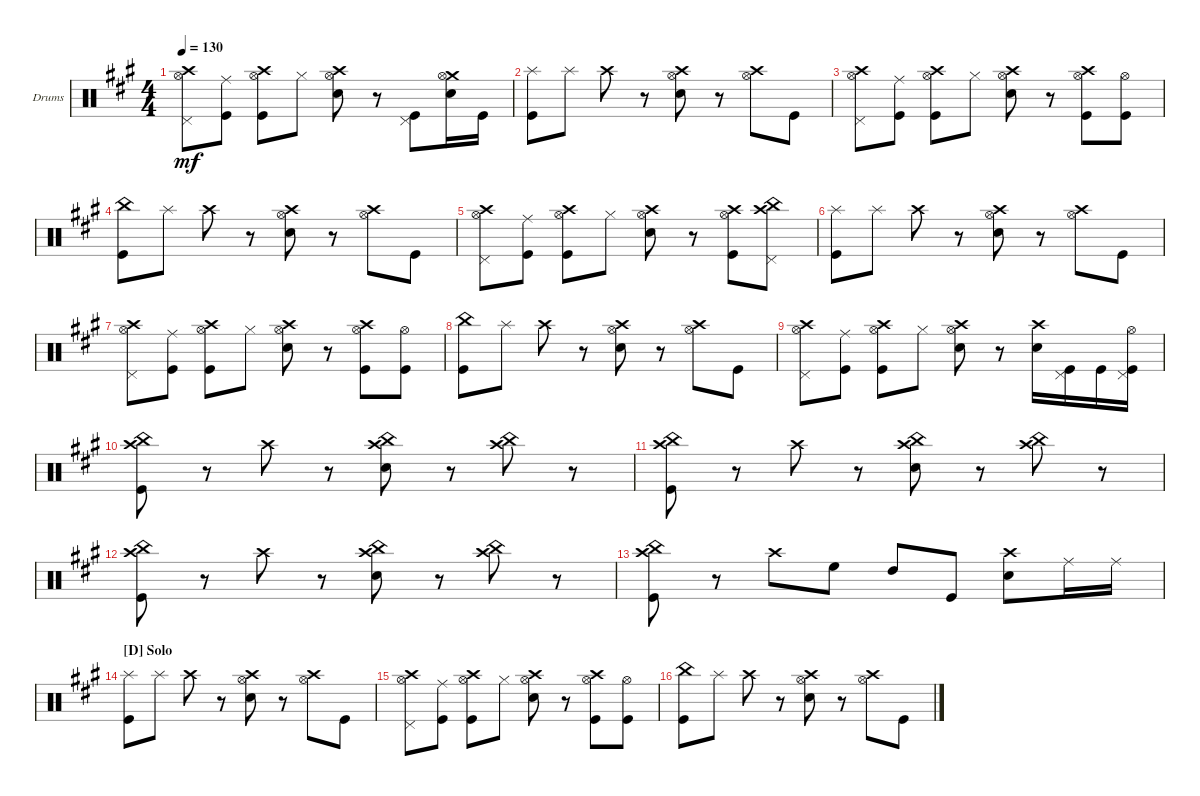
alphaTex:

\defaultSystemsLayout 4
\bracketExtendMode groupsimilarinstruments
\firstSystemTrackNameOrientation horizontal
\otherSystemsTrackNameOrientation horizontal
\track ("Bateria" "Drums") {instrument percussion}
\staff {score}
\articulation defaults
\ts (4 4)
\tempo 130
\clef neutral
\ks a
("Pedal Hi-Hat (hit)" "Hi-Hat (open)" "Crash high (hit)").8{dy mf} ("Kick (hit)" "Ride (middle)").8 ("Kick (hit)" "Hi-Hat (open)" "Crash high (hit)").8 "Hi-Hat (closed)".8 ("Snare (hit) 2" "Hi-Hat (open)" "Crash high (hit)").8 r.8 ("Kick (hit)" "Pedal Hi-Hat (hit)").8 ("Snare (hit) 2" "Crash medium (hit)" "Hi-Hat (open)").16 "Kick (hit)".16 |
("Kick (hit)" "Splash (hit)").8 "Splash (hit)".8 "Crash high (hit)".8 r.8 ("Snare (hit) 2" "Hi-Hat (open)" "Crash high (hit)").8 r.8 ("Hi-Hat (open)" "Crash high (hit)").8 "Kick (hit)".8 |
("Pedal Hi-Hat (hit)" "Hi-Hat (open)" "Crash high (hit)").8 ("Kick (hit)" "Ride (middle)").8 ("Kick (hit)" "Hi-Hat (open)" "Crash high (hit)").8 "Hi-Hat (closed)".8 ("Snare (hit) 2" "Hi-Hat (open)" "Crash high (hit)").8 r.8 ("Kick (hit)" "Hi-Hat (open)" "Crash high (hit)").8 ("Kick (hit)" "Hi-Hat (open)").8 |
("Kick (hit)" "China (hit)").8 "Splash (hit)".8 "Crash high (hit)".8 r.8 ("Snare (hit) 2" "Hi-Hat (open)" "Crash high (hit)").8 r.8 ("Hi-Hat (open)" "Crash high (hit)").8 "Kick (hit)".8 |
("Pedal Hi-Hat (hit)" "Hi-Hat (open)" "Crash high (hit)").8 ("Kick (hit)" "Ride (middle)").8 ("Kick (hit)" "Hi-Hat (open)" "Crash high (hit)").8 "Hi-Hat (closed)".8 ("Snare (hit) 2" "Hi-Hat (open)" "Crash high (hit)").8 r.8 ("Crash high (hit)" "Hi-Hat (open)" "Kick (hit)").8 ("Crash high (hit)" "China (hit)" "Pedal Hi-Hat (hit)").8 |
("Kick (hit)" "Splash (hit)").8 "Splash (hit)".8 "Crash high (hit)".8 r.8 ("Snare (hit) 2" "Hi-Hat (open)" "Crash high (hit)").8 r.8 ("Hi-Hat (open)" "Crash high (hit)").8 "Kick (hit)".8 |
("Pedal Hi-Hat (hit)" "Hi-Hat (open)" "Crash high (hit)").8 ("Kick (hit)" "Ride (middle)").8 ("Kick (hit)" "Hi-Hat (open)" "Crash high (hit)").8 "Hi-Hat (closed)".8 ("Snare (hit) 2" "Hi-Hat (open)" "Crash high (hit)").8 r.8 ("Kick (hit)" "Hi-Hat (open)" "Crash high (hit)").8 ("Kick (hit)" "Hi-Hat (open)").8 |
("Kick (hit)" "China (hit)").8 "Splash (hit)".8 "Crash high (hit)".8 r.8 ("Snare (hit) 2" "Hi-Hat (open)" "Crash high (hit)").8 r.8 ("Hi-Hat (open)" "Crash high (hit)").8 "Kick (hit)".8 |
("Pedal Hi-Hat (hit)" "Hi-Hat (open)" "Crash high (hit)").8 ("Kick (hit)" "Ride (middle)").8 ("Kick (hit)" "Hi-Hat (open)" "Crash high (hit)").8 "Hi-Hat (closed)".8 ("Snare (hit) 2" "Hi-Hat (open)" "Crash high (hit)").8 r.8 ("Crash high (hit)" "Snare (hit) 2").16 ("Kick (hit)" "Pedal Hi-Hat (hit)").16 "Kick (hit)".16 ("Hi-Hat (open)" "Kick (hit)" "Pedal Hi-Hat (hit)").16 |
("China (hit)" "Kick (hit)" "Crash high (hit)").8 r.8 "Crash high (hit)".8 r.8 ("China (hit)" "Crash high (hit)" "Snare (hit) 2").8 r.8 ("China (hit)" "Crash high (hit)").8 r.8 |
("China (hit)" "Kick (hit)" "Crash high (hit)").8 r.8 "Crash high (hit)".8 r.8 ("China (hit)" "Crash high (hit)" "Snare (hit) 2").8 r.8 ("China (hit)" "Crash high (hit)").8 r.8 |
("China (hit)" "Kick (hit)" "Crash high (hit)").8 r.8 "Crash high (hit)".8 r.8 ("China (hit)" "Crash high (hit)" "Snare (hit) 2").8 r.8 ("China (hit)" "Crash high (hit)").8 r.8 |
("China (hit)" "Kick (hit)" "Crash high (hit)").8 r.8 "Crash high (hit)".8 "High Floor Tom (hit)".8 "High Tom (hit)".8 "Kick (hit)".8 ("Snare (hit) 2" "Crash high (hit)").8 "Ride (middle)".16 "Ride (middle)".16 |
\section ("D" "Solo")
("Kick (hit)" "Splash (hit)").8 "Splash (hit)".8 "Crash high (hit)".8 r.8 ("Snare (hit) 2" "Hi-Hat (open)" "Crash high (hit)").8 r.8 ("Hi-Hat (open)" "Crash high (hit)").8 "Kick (hit)".8 |
("Pedal Hi-Hat (hit)" "Hi-Hat (open)" "Crash high (hit)").8 ("Kick (hit)" "Ride (middle)").8 ("Kick (hit)" "Hi-Hat (open)" "Crash high (hit)").8 "Hi-Hat (closed)".8 ("Snare (hit) 2" "Hi-Hat (open)" "Crash high (hit)").8 r.8 ("Kick (hit)" "Hi-Hat (open)" "Crash high (hit)").8 ("Kick (hit)" "Hi-Hat (open)").8 |
("Kick (hit)" "China (hit)").8 "Splash (hit)".8 "Crash high (hit)".8 r.8 ("Snare (hit) 2" "Hi-Hat (open)" "Crash high (hit)").8 r.8 ("Hi-Hat (open)" "Crash high (hit)").8 "Kick (hit)".8
